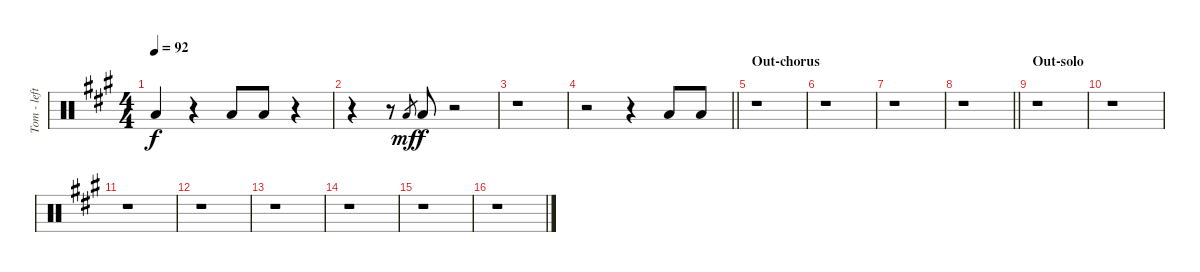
\track ("Tom - left" "Tom - left") {instrument percussion}
\staff {score}
\articulation defaults
\ts (4 4)
\tempo 92
\clef neutral
\ks f#minor "Low Tom (hit)".4{dy f}
r.4 "Low Tom (hit)".8 "Low Tom (hit)".8 r.4 |
r.4 r.8 "Low Tom (hit)".8{gr dy mf} "Low Tom (hit)".8{dy f} r.2 |
r.1 |
\barLineRight lightlight
r.2 r.4 "Low Tom (hit)".8{beam Up} "Low Tom (hit)".8{beam Up} |
\section ("" "Out-chorus")
r.1 |
r.1 |
r.1 |
\barLineRight lightlight
r.1 |
\section ("" "Out-solo")
r.1 |
r.1 |
r.1 |
r.1 |
r.1 |
r.1 |
r.1 |
r.1
